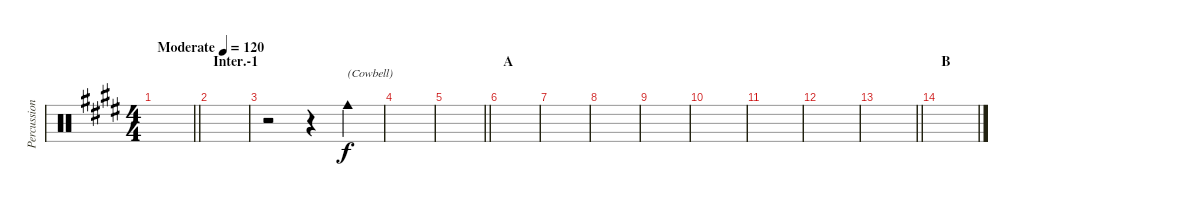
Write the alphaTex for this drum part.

\track ("Percussion" "Percussion") {instrument percussion}
\staff {score}
\articulation defaults
\ts (4 4)
\tempo (120 "Moderate")
\clef neutral
\barLineRight lightlight
\ks e
|
\section ("" "Inter.-1")
|
r.2 r.4 "Cowbell medium (hit)".4{txt "(Cowbell)"} |
|
\barLineRight lightlight
|
\section ("" "A")
|
|
|
|
|
|
|
\barLineRight lightlight
|
\section ("" "B")
